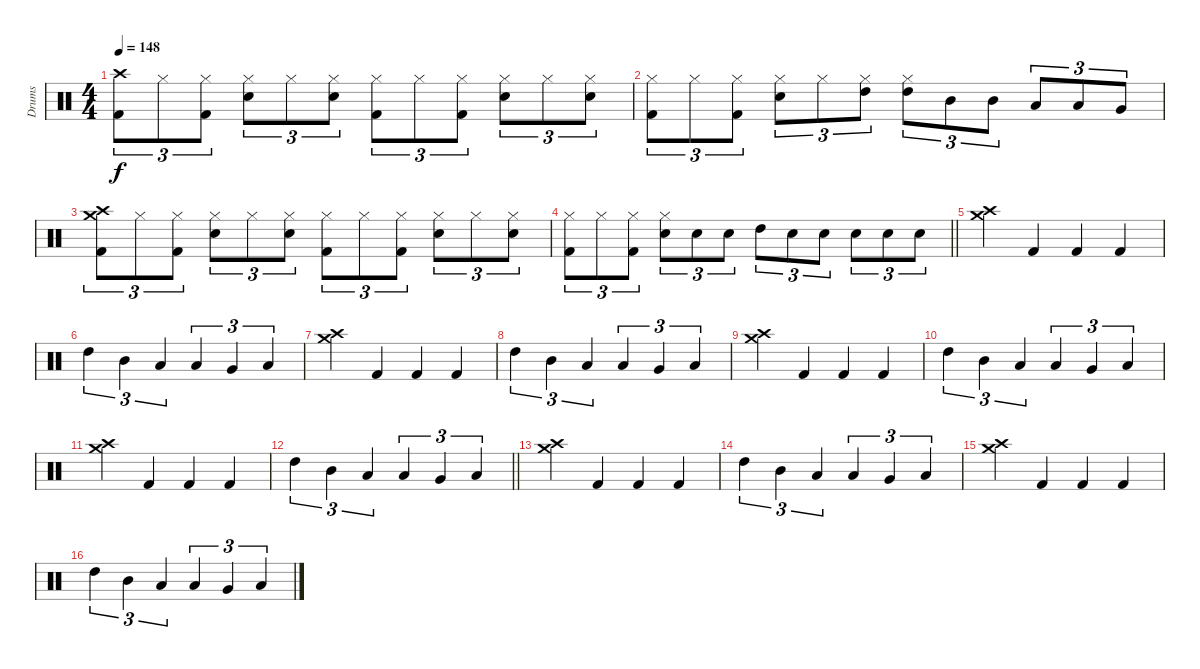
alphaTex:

\track ("Drums" "Drums") {instrument percussion}
\staff {score}
\articulation defaults
\ts (4 4)
\tempo 148
\clef neutral
\ks c
("Crash high (hit)" "Kick (hit) 2").8{tu (3 2) dy f} "Hi-Hat (closed)".8{tu (3 2)} ("Hi-Hat (closed)" "Kick (hit) 2").8{tu (3 2)} ("Hi-Hat (closed)" "Snare (hit) 2").8{tu (3 2)} "Hi-Hat (closed)".8{tu (3 2)} ("Hi-Hat (closed)" "Snare (hit) 2").8{tu (3 2)} ("Hi-Hat (closed)" "Kick (hit) 2").8{tu (3 2)} "Hi-Hat (closed)".8{tu (3 2)} ("Hi-Hat (closed)" "Kick (hit) 2").8{tu (3 2)} ("Hi-Hat (closed)" "Snare (hit) 2").8{tu (3 2)} "Hi-Hat (closed)".8{tu (3 2)} ("Hi-Hat (closed)" "Snare (hit) 2").8{tu (3 2)} |
("Hi-Hat (closed)" "Kick (hit) 2").8{tu (3 2)} "Hi-Hat (closed)".8{tu (3 2)} ("Hi-Hat (closed)" "Kick (hit) 2").8{tu (3 2)} ("Hi-Hat (closed)" "Snare (hit) 2").8{tu (3 2)} "Hi-Hat (closed)".8{tu (3 2)} ("Hi-Hat (closed)" "High Tom (hit)").8{tu (3 2)} ("Hi-Hat (closed)" "High Tom (hit)").8{tu (3 2)} "Mid Tom (hit)".8{tu (3 2)} "Mid Tom (hit)".8{tu (3 2)} "Low Tom (hit)".8{tu (3 2)} "Low Tom (hit)".8{tu (3 2)} "Very Low Tom (hit)".8{tu (3 2)} |
("Crash high (hit)" "Crash medium (hit)" "Kick (hit) 2").8{tu (3 2)} "Hi-Hat (closed)".8{tu (3 2)} ("Hi-Hat (closed)" "Kick (hit) 2").8{tu (3 2)} ("Hi-Hat (closed)" "Snare (hit) 2").8{tu (3 2)} "Hi-Hat (closed)".8{tu (3 2)} ("Hi-Hat (closed)" "Snare (hit) 2").8{tu (3 2)} ("Hi-Hat (closed)" "Kick (hit) 2").8{tu (3 2)} "Hi-Hat (closed)".8{tu (3 2)} ("Hi-Hat (closed)" "Kick (hit) 2").8{tu (3 2)} ("Hi-Hat (closed)" "Snare (hit) 2").8{tu (3 2)} "Hi-Hat (closed)".8{tu (3 2)} ("Hi-Hat (closed)" "Snare (hit) 2").8{tu (3 2)} |
\barLineRight lightlight
("Hi-Hat (closed)" "Kick (hit) 2").8{tu (3 2)} "Hi-Hat (closed)".8{tu (3 2)} ("Hi-Hat (closed)" "Kick (hit) 2").8{tu (3 2)} ("Hi-Hat (closed)" "Snare (hit) 2").8{tu (3 2)} "Snare (hit) 2".8{tu (3 2)} "Snare (hit) 2".8{tu (3 2)} "High Tom (hit)".8{tu (3 2)} "Snare (hit) 2".8{tu (3 2)} "Snare (hit) 2".8{tu (3 2)} "Snare (hit) 2".8{tu (3 2)} "Snare (hit) 2".8{tu (3 2)} "Snare (hit) 2".8{tu (3 2)} |
("Crash medium (hit)" "Crash high (hit)").4 "Kick (hit) 2".4 "Kick (hit) 2".4 "Kick (hit) 2".4 |
"High Tom (hit)".4{tu (3 2)} "Mid Tom (hit)".4{tu (3 2)} "Low Tom (hit)".4{tu (3 2)} "Low Tom (hit)".4{tu (3 2)} "Very Low Tom (hit)".4{tu (3 2)} "Low Floor Tom (hit)".4{tu (3 2)} |
("Crash medium (hit)" "Crash high (hit)").4 "Kick (hit) 2".4 "Kick (hit) 2".4 "Kick (hit) 2".4 |
"High Tom (hit)".4{tu (3 2)} "Mid Tom (hit)".4{tu (3 2)} "Low Tom (hit)".4{tu (3 2)} "Low Tom (hit)".4{tu (3 2)} "Very Low Tom (hit)".4{tu (3 2)} "Low Floor Tom (hit)".4{tu (3 2)} |
("Crash medium (hit)" "Crash high (hit)").4 "Kick (hit) 2".4 "Kick (hit) 2".4 "Kick (hit) 2".4 |
"High Tom (hit)".4{tu (3 2)} "Mid Tom (hit)".4{tu (3 2)} "Low Tom (hit)".4{tu (3 2)} "Low Tom (hit)".4{tu (3 2)} "Very Low Tom (hit)".4{tu (3 2)} "Low Floor Tom (hit)".4{tu (3 2)} |
("Crash medium (hit)" "Crash high (hit)").4 "Kick (hit) 2".4 "Kick (hit) 2".4 "Kick (hit) 2".4 |
\barLineRight lightlight "High Tom (hit)".4{tu (3 2)} "Mid Tom (hit)".4{tu (3 2)} "Low Tom (hit)".4{tu (3 2)} "Low Tom (hit)".4{tu (3 2)} "Very Low Tom (hit)".4{tu (3 2)} "Low Floor Tom (hit)".4{tu (3 2)}
|
("Crash medium (hit)" "Crash high (hit)").4 "Kick (hit) 2".4 "Kick (hit) 2".4 "Kick (hit) 2".4 |
"High Tom (hit)".4{tu (3 2)} "Mid Tom (hit)".4{tu (3 2)} "Low Tom (hit)".4{tu (3 2)} "Low Tom (hit)".4{tu (3 2)} "Very Low Tom (hit)".4{tu (3 2)} "Low Floor Tom (hit)".4{tu (3 2)} |
("Crash medium (hit)" "Crash high (hit)").4 "Kick (hit) 2".4 "Kick (hit) 2".4 "Kick (hit) 2".4 |
"High Tom (hit)".4{tu (3 2)} "Mid Tom (hit)".4{tu (3 2)} "Low Tom (hit)".4{tu (3 2)} "Low Tom (hit)".4{tu (3 2)} "Very Low Tom (hit)".4{tu (3 2)} "Low Floor Tom (hit)".4{tu (3 2)}
